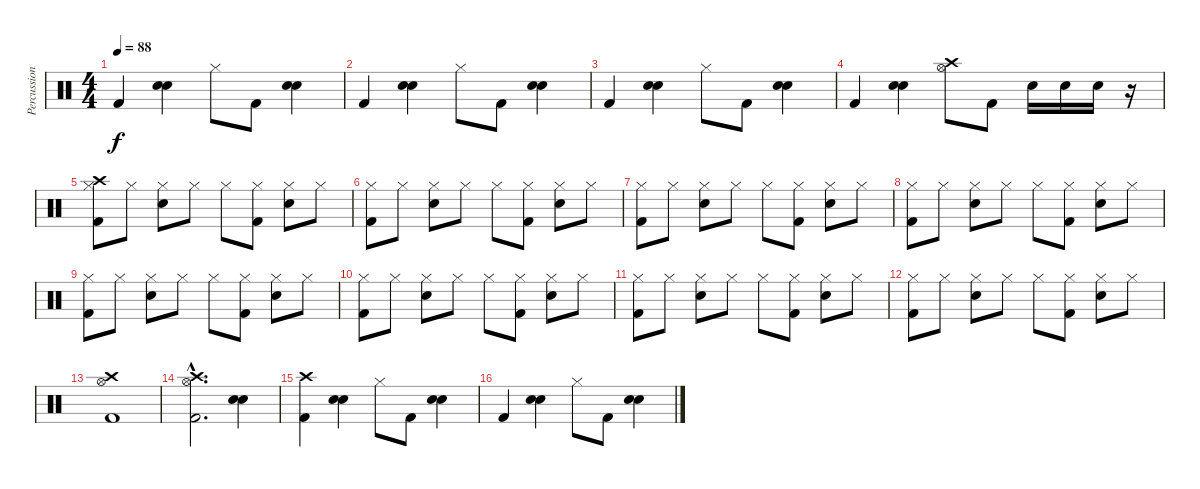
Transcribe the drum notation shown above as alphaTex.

\track ("Percussion" "Percussion") {instrument percussion}
\staff {score}
\articulation defaults
\ts (4 4)
\tempo 88
\clef neutral
\ks c "Kick (hit) 2".4{dy f}
("Snare (hit) 2" "Snare (hit) 2").4 "Hi-Hat (closed)".8 "Kick (hit) 2".8 ("Snare (hit) 2" "Snare (hit) 2").4 |
"Kick (hit) 2".4 ("Snare (hit) 2" "Snare (hit) 2").4 "Hi-Hat (closed)".8 "Kick (hit) 2".8 ("Snare (hit) 2" "Snare (hit) 2").4 |
"Kick (hit) 2".4 ("Snare (hit) 2" "Snare (hit) 2").4 "Hi-Hat (closed)".8 "Kick (hit) 2".8 ("Snare (hit) 2" "Snare (hit) 2").4 |
"Kick (hit) 2".4 ("Snare (hit) 2" "Snare (hit) 2").4 ("Crash high (hit)" "Hi-Hat (open)").8 "Kick (hit) 2".8 "Snare (hit) 2".16 "Snare (hit) 2".16 "Snare (hit) 2".16 r.16 |
("Crash high (hit)" "Hi-Hat (closed)" "Kick (hit) 2").8 "Hi-Hat (closed)".8 ("Hi-Hat (closed)" "Snare (hit) 2").8 "Hi-Hat (closed)".8 "Hi-Hat (closed)".8 ("Hi-Hat (closed)" "Kick (hit) 2").8 ("Hi-Hat (closed)" "Snare (hit) 2").8 "Hi-Hat (closed)".8 |
("Hi-Hat (closed)" "Kick (hit) 2").8 "Hi-Hat (closed)".8 ("Hi-Hat (closed)" "Snare (hit) 2").8 "Hi-Hat (closed)".8 "Hi-Hat (closed)".8 ("Hi-Hat (closed)" "Kick (hit) 2").8 ("Hi-Hat (closed)" "Snare (hit) 2").8 "Hi-Hat (closed)".8 |
("Hi-Hat (closed)" "Kick (hit) 2").8 "Hi-Hat (closed)".8 ("Hi-Hat (closed)" "Snare (hit) 2").8 "Hi-Hat (closed)".8 "Hi-Hat (closed)".8 ("Hi-Hat (closed)" "Kick (hit) 2").8 ("Hi-Hat (closed)" "Snare (hit) 2").8 "Hi-Hat (closed)".8 |
("Hi-Hat (closed)" "Kick (hit) 2").8 "Hi-Hat (closed)".8 ("Hi-Hat (closed)" "Snare (hit) 2").8 "Hi-Hat (closed)".8 "Hi-Hat (closed)".8 ("Hi-Hat (closed)" "Kick (hit) 2").8 ("Hi-Hat (closed)" "Snare (hit) 2").8 "Hi-Hat (closed)".8 |
("Hi-Hat (closed)" "Kick (hit) 2").8 "Hi-Hat (closed)".8 ("Hi-Hat (closed)" "Snare (hit) 2").8 "Hi-Hat (closed)".8 "Hi-Hat (closed)".8 ("Hi-Hat (closed)" "Kick (hit) 2").8 ("Hi-Hat (closed)" "Snare (hit) 2").8 "Hi-Hat (closed)".8 |
("Hi-Hat (closed)" "Kick (hit) 2").8 "Hi-Hat (closed)".8 ("Hi-Hat (closed)" "Snare (hit) 2").8 "Hi-Hat (closed)".8 "Hi-Hat (closed)".8 ("Hi-Hat (closed)" "Kick (hit) 2").8 ("Hi-Hat (closed)" "Snare (hit) 2").8 "Hi-Hat (closed)".8 |
("Hi-Hat (closed)" "Kick (hit) 2").8 "Hi-Hat (closed)".8 ("Hi-Hat (closed)" "Snare (hit) 2").8 "Hi-Hat (closed)".8 "Hi-Hat (closed)".8 ("Hi-Hat (closed)" "Kick (hit) 2").8 ("Hi-Hat (closed)" "Snare (hit) 2").8 "Hi-Hat (closed)".8 |
("Hi-Hat (closed)" "Kick (hit) 2").8 "Hi-Hat (closed)".8 ("Hi-Hat (closed)" "Snare (hit) 2").8 "Hi-Hat (closed)".8 "Hi-Hat (closed)".8 ("Hi-Hat (closed)" "Kick (hit) 2").8 ("Hi-Hat (closed)" "Snare (hit) 2").8 "Hi-Hat (closed)".8 |
("Crash high (hit)" "Hi-Hat (open)" "Kick (hit) 2").1 |
("Crash high (hit)"{hac} "Hi-Hat (open)"{hac} "Kick (hit) 2"{hac}).2{d} ("Snare (hit) 2" "Snare (hit) 2").4 |
("Crash high (hit)" "Kick (hit) 2").4 ("Snare (hit) 2" "Snare (hit) 2").4 "Hi-Hat (closed)".8 "Kick (hit) 2".8 ("Snare (hit) 2" "Snare (hit) 2").4 |
"Kick (hit) 2".4 ("Snare (hit) 2" "Snare (hit) 2").4 "Hi-Hat (closed)".8 "Kick (hit) 2".8 ("Snare (hit) 2" "Snare (hit) 2").4
